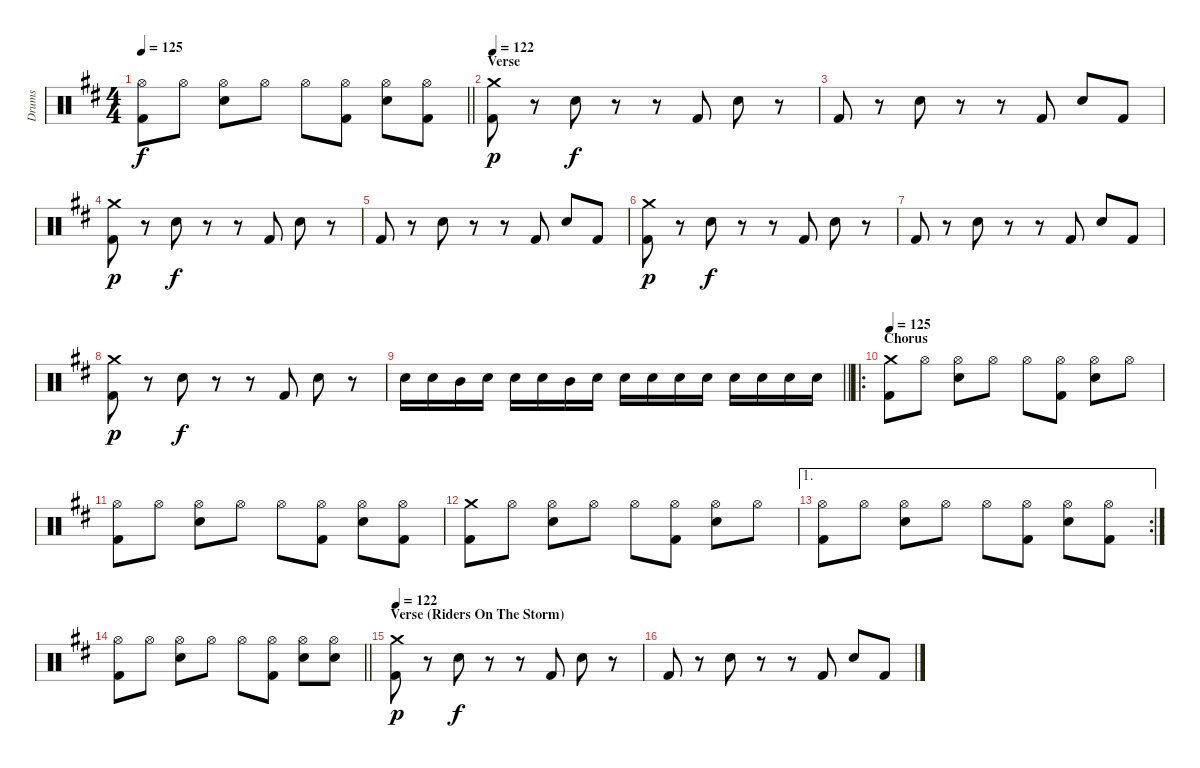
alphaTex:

\track ("Drums" "Drums") {instrument percussion}
\staff {score}
\articulation defaults
\ts (4 4)
\tempo 125
\clef neutral
\barLineRight lightlight
\ks d
("Hi-Hat (open)" "Kick (hit) 2").8{dy f} "Hi-Hat (open)".8 ("Hi-Hat (open)" "Snare (hit) 2").8 "Hi-Hat (open)".8 "Hi-Hat (open)".8 ("Hi-Hat (open)" "Kick (hit) 2").8 ("Hi-Hat (open)" "Snare (hit) 2").8 ("Hi-Hat (open)" "Kick (hit) 2").8 |
\section ("" "Verse")
\tempo 122
("Crash medium (hit)" "Kick (hit) 2").8{dy p} r.8 "Snare (hit) 2".8{dy f} r.8 r.8 "Kick (hit) 2".8 "Snare (hit) 2".8 r.8 |
"Kick (hit) 2".8 r.8 "Snare (hit) 2".8 r.8 r.8 "Kick (hit) 2".8 "Snare (hit) 2".8 "Kick (hit) 2".8 |
("Crash medium (hit)" "Kick (hit) 2").8{dy p} r.8 "Snare (hit) 2".8{dy f} r.8 r.8 "Kick (hit) 2".8 "Snare (hit) 2".8 r.8 |
"Kick (hit) 2".8 r.8 "Snare (hit) 2".8 r.8 r.8 "Kick (hit) 2".8 "Snare (hit) 2".8 "Kick (hit) 2".8 |
("Crash medium (hit)" "Kick (hit) 2").8{dy p} r.8 "Snare (hit) 2".8{dy f} r.8 r.8 "Kick (hit) 2".8 "Snare (hit) 2".8 r.8 |
"Kick (hit) 2".8 r.8 "Snare (hit) 2".8 r.8 r.8 "Kick (hit) 2".8 "Snare (hit) 2".8 "Kick (hit) 2".8 |
("Crash medium (hit)" "Kick (hit) 2").8{dy p} r.8 "Snare (hit) 2".8{dy f} r.8 r.8 "Kick (hit) 2".8 "Snare (hit) 2".8 r.8 |
\barLineRight lightlight "Snare (hit) 2".16 "Snare (hit) 2".16 "Mid Tom (hit)".16 "Snare (hit) 2".16 "Snare (hit) 2".16 "Snare (hit) 2".16 "Mid Tom (hit)".16 "Snare (hit) 2".16 "Snare (hit) 2".16 "Snare (hit) 2".16 "Snare (hit) 2".16 "Snare (hit) 2".16 "Snare (hit) 2".16 "Snare (hit) 2".16 "Snare (hit) 2".16 "Snare (hit) 2".16
|
\ro
\section ("" "Chorus")
\tempo 125
("Crash medium (hit)" "Kick (hit) 2").8 "Hi-Hat (open)".8 ("Hi-Hat (open)" "Snare (hit) 2").8 "Hi-Hat (open)".8 "Hi-Hat (open)".8 ("Hi-Hat (open)" "Kick (hit) 2").8 ("Hi-Hat (open)" "Snare (hit) 2").8 "Hi-Hat (open)".8 |
("Hi-Hat (open)" "Kick (hit) 2").8 "Hi-Hat (open)".8 ("Hi-Hat (open)" "Snare (hit) 2").8 "Hi-Hat (open)".8 "Hi-Hat (open)".8 ("Hi-Hat (open)" "Kick (hit) 2").8 ("Hi-Hat (open)" "Snare (hit) 2").8 ("Hi-Hat (open)" "Kick (hit) 2").8 |
("Crash medium (hit)" "Kick (hit) 2").8 "Hi-Hat (open)".8 ("Hi-Hat (open)" "Snare (hit) 2").8 "Hi-Hat (open)".8 "Hi-Hat (open)".8 ("Hi-Hat (open)" "Kick (hit) 2").8 ("Hi-Hat (open)" "Snare (hit) 2").8 "Hi-Hat (open)".8 |
\ae 1
\rc 2
("Hi-Hat (open)" "Kick (hit) 2").8 "Hi-Hat (open)".8 ("Hi-Hat (open)" "Snare (hit) 2").8 "Hi-Hat (open)".8 "Hi-Hat (open)".8 ("Hi-Hat (open)" "Kick (hit) 2").8 ("Hi-Hat (open)" "Snare (hit) 2").8 ("Hi-Hat (open)" "Kick (hit) 2").8 |
\barLineRight lightlight
("Hi-Hat (open)" "Kick (hit) 2").8 "Hi-Hat (open)".8 ("Hi-Hat (open)" "Snare (hit) 2").8 "Hi-Hat (open)".8 "Hi-Hat (open)".8 ("Hi-Hat (open)" "Kick (hit) 2").8 ("Hi-Hat (open)" "Snare (hit) 2").8 ("Hi-Hat (open)" "Snare (hit) 2").8 |
\section ("" "Verse (Riders On The Storm)")
\tempo 122
("Crash medium (hit)" "Kick (hit) 2").8{dy p} r.8 "Snare (hit) 2".8{dy f} r.8 r.8 "Kick (hit) 2".8 "Snare (hit) 2".8 r.8 |
"Kick (hit) 2".8 r.8 "Snare (hit) 2".8 r.8 r.8 "Kick (hit) 2".8 "Snare (hit) 2".8 "Kick (hit) 2".8
